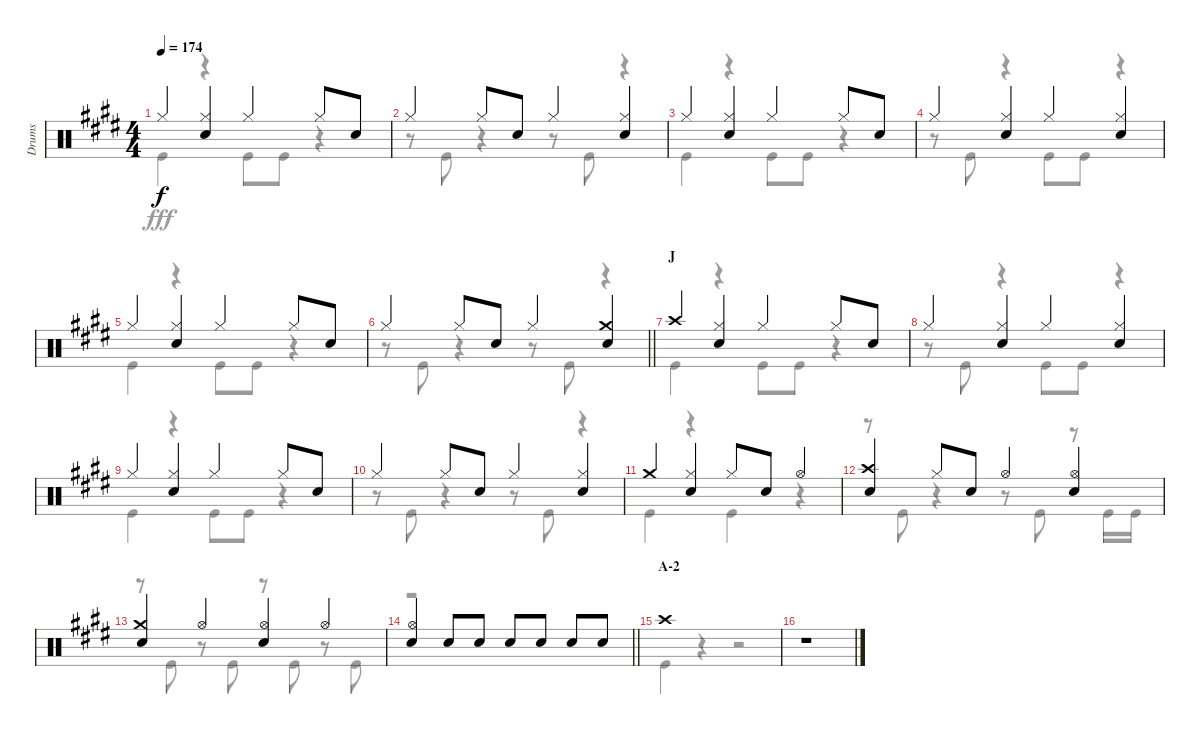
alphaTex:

\track ("Drums" "Drums") {instrument percussion}
\staff {score}
\articulation defaults
\voice
\ts (4 4)
\tempo 174
\clef neutral
\ks e "Hi-Hat (closed)".4{dy f}
("Hi-Hat (closed)" "Snare (hit) 2").4 "Hi-Hat (closed)".4 "Hi-Hat (closed)".8 "Snare (hit) 2".8 |
"Hi-Hat (closed)".4 "Hi-Hat (closed)".8 "Snare (hit) 2".8 "Hi-Hat (closed)".4 ("Hi-Hat (closed)" "Snare (hit) 2").4 |
"Hi-Hat (closed)".4 ("Hi-Hat (closed)" "Snare (hit) 2").4 "Hi-Hat (closed)".4 "Hi-Hat (closed)".8 "Snare (hit) 2".8 |
"Hi-Hat (closed)".4 ("Hi-Hat (closed)" "Snare (hit) 2").4 "Hi-Hat (closed)".4 ("Hi-Hat (closed)" "Snare (hit) 2").4 |
"Hi-Hat (closed)".4 ("Hi-Hat (closed)" "Snare (hit) 2").4 "Hi-Hat (closed)".4 "Hi-Hat (closed)".8 "Snare (hit) 2".8 |
\barLineRight lightlight "Hi-Hat (closed)".4 "Hi-Hat (closed)".8 "Snare (hit) 2".8 "Hi-Hat (closed)".4
("Crash medium (hit)" "Snare (hit) 2").4 |
\section ("" "J")
"Crash high (hit)".4 ("Hi-Hat (closed)" "Snare (hit) 2").4 "Hi-Hat (closed)".4 "Hi-Hat (closed)".8 "Snare (hit) 2".8 |
"Hi-Hat (closed)".4 ("Hi-Hat (closed)" "Snare (hit) 2").4 "Hi-Hat (closed)".4 ("Hi-Hat (closed)" "Snare (hit) 2").4 |
"Hi-Hat (closed)".4 ("Hi-Hat (closed)" "Snare (hit) 2").4 "Hi-Hat (closed)".4 "Hi-Hat (closed)".8 "Snare (hit) 2".8 |
"Hi-Hat (closed)".4 "Hi-Hat (closed)".8 "Snare (hit) 2".8 "Hi-Hat (closed)".4 ("Hi-Hat (closed)" "Snare (hit) 2").4 |
"Crash medium (hit)".4 ("Hi-Hat (closed)" "Snare (hit) 2").4 "Hi-Hat (closed)".8 "Snare (hit) 2".8 "Hi-Hat (open)".4 |
("Crash high (hit)" "Snare (hit) 2").4 "Hi-Hat (closed)".8 "Snare (hit) 2".8 "Hi-Hat (open)".4 ("Hi-Hat (open)" "Snare (hit) 2").4 |
("Crash medium (hit)" "Snare (hit) 2").4 "Hi-Hat (open)".4 ("Hi-Hat (open)" "Snare (hit) 2").4 "Hi-Hat (open)".4 |
\barLineRight lightlight
("Hi-Hat (open)" "Snare (hit) 2").4 "Snare (hit) 2".8 "Snare (hit) 2".8 "Snare (hit) 2".8 "Snare (hit) 2".8 "Snare (hit) 2".8 "Snare (hit) 2".8 |
\section ("" "A-2")
"Crash high (hit)".1 |
r.1
\voice
\clef neutral
\ottava regular
\simile none
\ks e "Kick (hit)".4{dy fff}
r.4 "Kick (hit)".8 "Kick (hit)".8 r.4 |
r.8 "Kick (hit)".8 r.4 r.8 "Kick (hit)".8 r.4 |
"Kick (hit)".4 r.4 "Kick (hit)".8 "Kick (hit)".8 r.4 |
r.8 "Kick (hit)".8 r.4 "Kick (hit)".8 "Kick (hit)".8 r.4 |
"Kick (hit)".4 r.4 "Kick (hit)".8 "Kick (hit)".8 r.4 |
\barLineRight lightlight
r.8 "Kick (hit)".8 r.4 r.8 "Kick (hit)".8 r.4 |
"Kick (hit)".4 r.4 "Kick (hit)".8 "Kick (hit)".8 r.4 |
r.8 "Kick (hit)".8 r.4 "Kick (hit)".8 "Kick (hit)".8 r.4 |
"Kick (hit)".4 r.4 "Kick (hit)".8 "Kick (hit)".8 r.4 |
r.8 "Kick (hit)".8 r.4 r.8 "Kick (hit)".8 r.4 |
"Kick (hit)".4 r.4 "Kick (hit)".4 r.4 |
r.8 "Kick (hit)".8 r.4 r.8 "Kick (hit)".8 r.8 "Kick (hit)".16 "Kick (hit)".16 |
r.8 "Kick (hit)".8 r.8 "Kick (hit)".8 r.8 "Kick (hit)".8 r.8 "Kick (hit)".8 |
\barLineRight lightlight
r.1 |
"Kick (hit)".4 r.4 r.2 |
r.1
